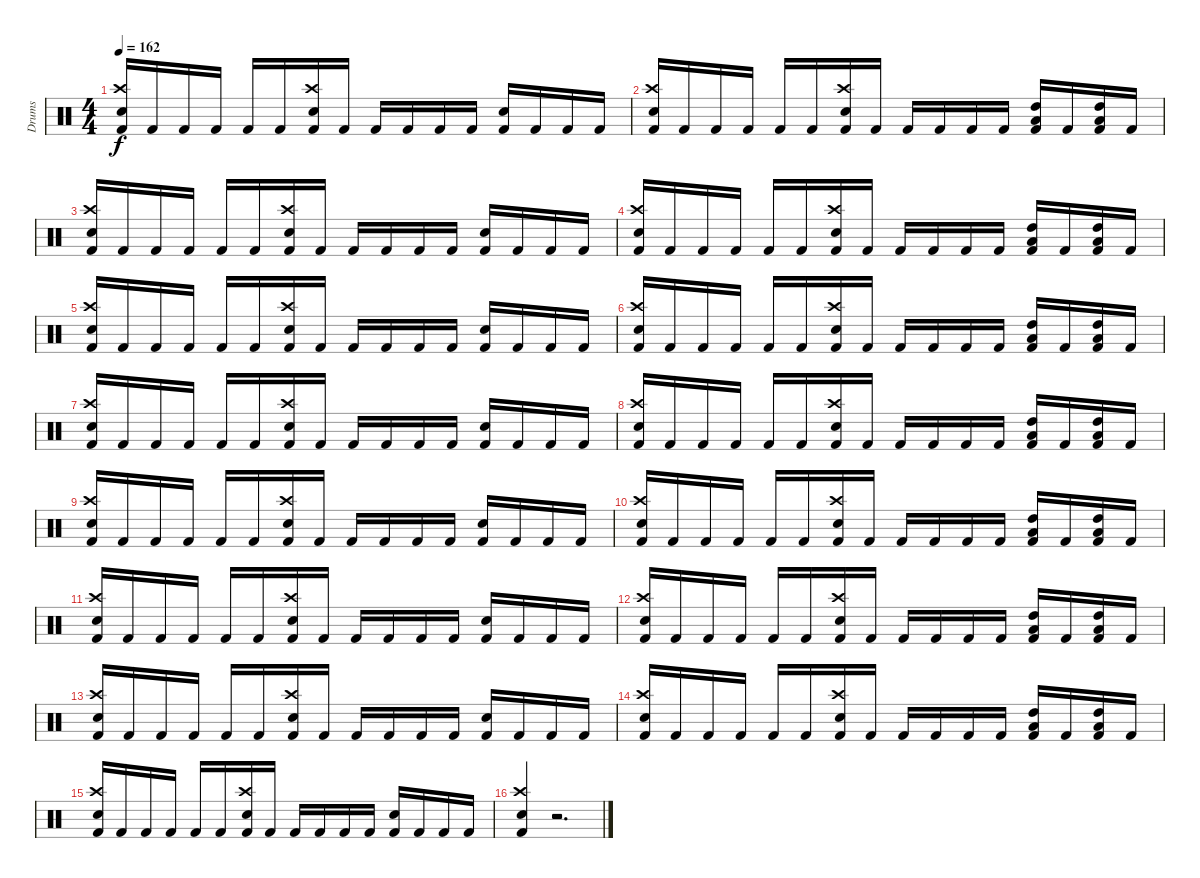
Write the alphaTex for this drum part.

\track ("Drums" "Drums") {instrument percussion}
\staff {score}
\articulation defaults
\ts (4 4)
\tempo 162
\clef neutral
\ks c
("Kick (hit) 2" "Crash high (hit)" "Electric Snare (hit)").16{dy f} "Kick (hit) 2".16 "Kick (hit) 2".16 "Kick (hit) 2".16 "Kick (hit) 2".16 "Kick (hit) 2".16 ("Kick (hit) 2" "Crash high (hit)" "Electric Snare (hit)").16 "Kick (hit) 2".16 "Kick (hit) 2".16 "Kick (hit) 2".16 "Kick (hit) 2".16 "Kick (hit) 2".16 ("Kick (hit) 2" "Electric Snare (hit)").16 "Kick (hit) 2".16 "Kick (hit) 2".16 "Kick (hit) 2".16 |
("Kick (hit) 2" "Crash high (hit)" "Electric Snare (hit)").16 "Kick (hit) 2".16 "Kick (hit) 2".16 "Kick (hit) 2".16 "Kick (hit) 2".16 "Kick (hit) 2".16 ("Kick (hit) 2" "Crash high (hit)" "Electric Snare (hit)").16 "Kick (hit) 2".16 "Kick (hit) 2".16 "Kick (hit) 2".16 "Kick (hit) 2".16 "Kick (hit) 2".16 ("Kick (hit) 2" "High Tom (hit)" "Low Tom (hit)").16 "Kick (hit) 2".16 ("Kick (hit) 2" "High Tom (hit)" "Low Tom (hit)").16 "Kick (hit) 2".16 |
("Kick (hit) 2" "Crash high (hit)" "Electric Snare (hit)").16 "Kick (hit) 2".16 "Kick (hit) 2".16 "Kick (hit) 2".16 "Kick (hit) 2".16 "Kick (hit) 2".16 ("Kick (hit) 2" "Crash high (hit)" "Electric Snare (hit)").16 "Kick (hit) 2".16 "Kick (hit) 2".16 "Kick (hit) 2".16 "Kick (hit) 2".16 "Kick (hit) 2".16 ("Kick (hit) 2" "Electric Snare (hit)").16 "Kick (hit) 2".16 "Kick (hit) 2".16 "Kick (hit) 2".16 |
("Kick (hit) 2" "Crash high (hit)" "Electric Snare (hit)").16 "Kick (hit) 2".16 "Kick (hit) 2".16 "Kick (hit) 2".16 "Kick (hit) 2".16 "Kick (hit) 2".16 ("Kick (hit) 2" "Crash high (hit)" "Electric Snare (hit)").16 "Kick (hit) 2".16 "Kick (hit) 2".16 "Kick (hit) 2".16 "Kick (hit) 2".16 "Kick (hit) 2".16 ("Kick (hit) 2" "High Tom (hit)" "Low Tom (hit)").16 "Kick (hit) 2".16 ("Kick (hit) 2" "High Tom (hit)" "Low Tom (hit)").16 "Kick (hit) 2".16 |
("Kick (hit) 2" "Crash high (hit)" "Electric Snare (hit)").16 "Kick (hit) 2".16 "Kick (hit) 2".16 "Kick (hit) 2".16 "Kick (hit) 2".16 "Kick (hit) 2".16 ("Kick (hit) 2" "Crash high (hit)" "Electric Snare (hit)").16 "Kick (hit) 2".16 "Kick (hit) 2".16 "Kick (hit) 2".16 "Kick (hit) 2".16 "Kick (hit) 2".16 ("Kick (hit) 2" "Electric Snare (hit)").16 "Kick (hit) 2".16 "Kick (hit) 2".16 "Kick (hit) 2".16 |
("Kick (hit) 2" "Crash high (hit)" "Electric Snare (hit)").16 "Kick (hit) 2".16 "Kick (hit) 2".16 "Kick (hit) 2".16 "Kick (hit) 2".16 "Kick (hit) 2".16 ("Kick (hit) 2" "Crash high (hit)" "Electric Snare (hit)").16 "Kick (hit) 2".16 "Kick (hit) 2".16 "Kick (hit) 2".16 "Kick (hit) 2".16 "Kick (hit) 2".16 ("Kick (hit) 2" "High Tom (hit)" "Low Tom (hit)").16 "Kick (hit) 2".16 ("Kick (hit) 2" "High Tom (hit)" "Low Tom (hit)").16 "Kick (hit) 2".16 |
("Kick (hit) 2" "Crash high (hit)" "Electric Snare (hit)").16 "Kick (hit) 2".16 "Kick (hit) 2".16 "Kick (hit) 2".16 "Kick (hit) 2".16 "Kick (hit) 2".16 ("Kick (hit) 2" "Crash high (hit)" "Electric Snare (hit)").16 "Kick (hit) 2".16 "Kick (hit) 2".16 "Kick (hit) 2".16 "Kick (hit) 2".16 "Kick (hit) 2".16 ("Kick (hit) 2" "Electric Snare (hit)").16 "Kick (hit) 2".16 "Kick (hit) 2".16 "Kick (hit) 2".16 |
("Kick (hit) 2" "Crash high (hit)" "Electric Snare (hit)").16 "Kick (hit) 2".16 "Kick (hit) 2".16 "Kick (hit) 2".16 "Kick (hit) 2".16 "Kick (hit) 2".16 ("Kick (hit) 2" "Crash high (hit)" "Electric Snare (hit)").16 "Kick (hit) 2".16 "Kick (hit) 2".16 "Kick (hit) 2".16 "Kick (hit) 2".16 "Kick (hit) 2".16 ("Kick (hit) 2" "High Tom (hit)" "Low Tom (hit)").16 "Kick (hit) 2".16 ("Kick (hit) 2" "High Tom (hit)" "Low Tom (hit)").16 "Kick (hit) 2".16 |
("Kick (hit) 2" "Crash high (hit)" "Electric Snare (hit)").16 "Kick (hit) 2".16 "Kick (hit) 2".16 "Kick (hit) 2".16 "Kick (hit) 2".16 "Kick (hit) 2".16 ("Kick (hit) 2" "Crash high (hit)" "Electric Snare (hit)").16 "Kick (hit) 2".16 "Kick (hit) 2".16 "Kick (hit) 2".16 "Kick (hit) 2".16 "Kick (hit) 2".16 ("Kick (hit) 2" "Electric Snare (hit)").16 "Kick (hit) 2".16 "Kick (hit) 2".16 "Kick (hit) 2".16 |
("Kick (hit) 2" "Crash high (hit)" "Electric Snare (hit)").16 "Kick (hit) 2".16 "Kick (hit) 2".16 "Kick (hit) 2".16 "Kick (hit) 2".16 "Kick (hit) 2".16 ("Kick (hit) 2" "Crash high (hit)" "Electric Snare (hit)").16 "Kick (hit) 2".16 "Kick (hit) 2".16 "Kick (hit) 2".16 "Kick (hit) 2".16 "Kick (hit) 2".16 ("Kick (hit) 2" "High Tom (hit)" "Low Tom (hit)").16 "Kick (hit) 2".16 ("Kick (hit) 2" "High Tom (hit)" "Low Tom (hit)").16 "Kick (hit) 2".16 |
("Kick (hit) 2" "Crash high (hit)" "Electric Snare (hit)").16 "Kick (hit) 2".16 "Kick (hit) 2".16 "Kick (hit) 2".16 "Kick (hit) 2".16 "Kick (hit) 2".16 ("Kick (hit) 2" "Crash high (hit)" "Electric Snare (hit)").16 "Kick (hit) 2".16 "Kick (hit) 2".16 "Kick (hit) 2".16 "Kick (hit) 2".16 "Kick (hit) 2".16 ("Kick (hit) 2" "Electric Snare (hit)").16 "Kick (hit) 2".16 "Kick (hit) 2".16 "Kick (hit) 2".16 |
("Kick (hit) 2" "Crash high (hit)" "Electric Snare (hit)").16 "Kick (hit) 2".16 "Kick (hit) 2".16 "Kick (hit) 2".16 "Kick (hit) 2".16 "Kick (hit) 2".16 ("Kick (hit) 2" "Crash high (hit)" "Electric Snare (hit)").16 "Kick (hit) 2".16 "Kick (hit) 2".16 "Kick (hit) 2".16 "Kick (hit) 2".16 "Kick (hit) 2".16 ("Kick (hit) 2" "High Tom (hit)" "Low Tom (hit)").16 "Kick (hit) 2".16 ("Kick (hit) 2" "High Tom (hit)" "Low Tom (hit)").16 "Kick (hit) 2".16 |
("Kick (hit) 2" "Crash high (hit)" "Electric Snare (hit)").16 "Kick (hit) 2".16 "Kick (hit) 2".16 "Kick (hit) 2".16 "Kick (hit) 2".16 "Kick (hit) 2".16 ("Kick (hit) 2" "Crash high (hit)" "Electric Snare (hit)").16 "Kick (hit) 2".16 "Kick (hit) 2".16 "Kick (hit) 2".16 "Kick (hit) 2".16 "Kick (hit) 2".16 ("Kick (hit) 2" "Electric Snare (hit)").16 "Kick (hit) 2".16 "Kick (hit) 2".16 "Kick (hit) 2".16 |
("Kick (hit) 2" "Crash high (hit)" "Electric Snare (hit)").16 "Kick (hit) 2".16 "Kick (hit) 2".16 "Kick (hit) 2".16 "Kick (hit) 2".16 "Kick (hit) 2".16 ("Kick (hit) 2" "Crash high (hit)" "Electric Snare (hit)").16 "Kick (hit) 2".16 "Kick (hit) 2".16 "Kick (hit) 2".16 "Kick (hit) 2".16 "Kick (hit) 2".16 ("Kick (hit) 2" "High Tom (hit)" "Low Tom (hit)").16 "Kick (hit) 2".16 ("Kick (hit) 2" "High Tom (hit)" "Low Tom (hit)").16 "Kick (hit) 2".16 |
("Kick (hit) 2" "Crash high (hit)" "Electric Snare (hit)").16 "Kick (hit) 2".16 "Kick (hit) 2".16 "Kick (hit) 2".16 "Kick (hit) 2".16 "Kick (hit) 2".16 ("Kick (hit) 2" "Crash high (hit)" "Electric Snare (hit)").16 "Kick (hit) 2".16 "Kick (hit) 2".16 "Kick (hit) 2".16 "Kick (hit) 2".16 "Kick (hit) 2".16 ("Kick (hit) 2" "Electric Snare (hit)").16 "Kick (hit) 2".16 "Kick (hit) 2".16 "Kick (hit) 2".16 |
("Kick (hit) 2" "Crash high (hit)" "Electric Snare (hit)").4 r.2{d}
